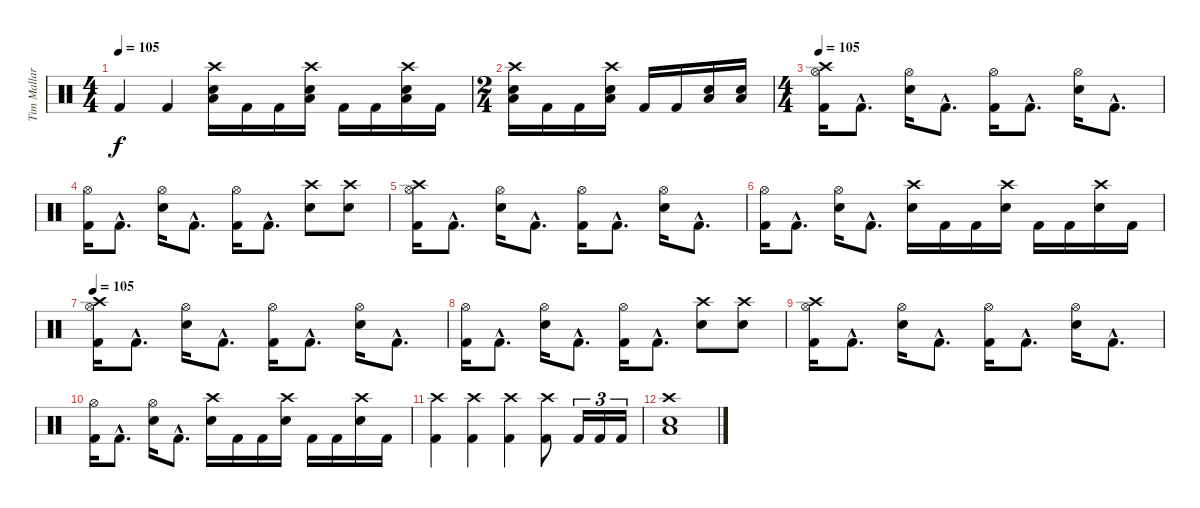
\track ("Tim Mallare" "Tim Mallar") {instrument percussion}
\staff {score}
\articulation defaults
\ts (4 4)
\tempo 105
\clef neutral
\ks c "Kick (hit) 2".4{dy f} "Kick (hit) 2".4
("Crash high (hit)" "Low Floor Tom (hit)" "Electric Snare (hit)").16 "Kick (hit) 2".16 "Kick (hit) 2".16 ("Crash high (hit)" "Low Floor Tom (hit)" "Electric Snare (hit)").16 "Kick (hit) 2".16 "Kick (hit) 2".16 ("Crash high (hit)" "Low Floor Tom (hit)" "Electric Snare (hit)").16 "Kick (hit) 2".16 |
\ts (2 4)
("Crash high (hit)" "Low Floor Tom (hit)" "Electric Snare (hit)").16 "Kick (hit) 2".16 "Kick (hit) 2".16 ("Crash high (hit)" "Low Floor Tom (hit)" "Electric Snare (hit)").16 "Kick (hit) 2".16 "Kick (hit) 2".16 ("Low Floor Tom (hit)" "Electric Snare (hit)").16 ("Low Floor Tom (hit)" "Electric Snare (hit)").16 |
\ts (4 4)
\tempo 105
("Crash high (hit)" "Hi-Hat (open)" "Kick (hit) 2").16 "Kick (hit) 2"{hac}.8{d} ("Hi-Hat (open)" "Electric Snare (hit)").16 "Kick (hit) 2"{hac}.8{d} ("Hi-Hat (open)" "Kick (hit) 2").16 "Kick (hit) 2"{hac}.8{d} ("Hi-Hat (open)" "Electric Snare (hit)").16 "Kick (hit) 2"{hac}.8{d} |
("Hi-Hat (open)" "Kick (hit) 2").16 "Kick (hit) 2"{hac}.8{d} ("Hi-Hat (open)" "Electric Snare (hit)").16 "Kick (hit) 2"{hac}.8{d} ("Hi-Hat (open)" "Kick (hit) 2").16 "Kick (hit) 2"{hac}.8{d} ("Crash high (hit)" "Electric Snare (hit)").8 ("Crash high (hit)" "Electric Snare (hit)").8 |
("Crash high (hit)" "Hi-Hat (open)" "Kick (hit) 2").16 "Kick (hit) 2"{hac}.8{d} ("Hi-Hat (open)" "Electric Snare (hit)").16 "Kick (hit) 2"{hac}.8{d} ("Hi-Hat (open)" "Kick (hit) 2").16 "Kick (hit) 2"{hac}.8{d} ("Hi-Hat (open)" "Electric Snare (hit)").16 "Kick (hit) 2"{hac}.8{d} |
("Hi-Hat (open)" "Kick (hit) 2").16 "Kick (hit) 2"{hac}.8{d} ("Hi-Hat (open)" "Electric Snare (hit)").16 "Kick (hit) 2"{hac}.8{d} ("Crash high (hit)" "Electric Snare (hit)").16 "Kick (hit) 2".16 "Kick (hit) 2".16 ("Crash high (hit)" "Electric Snare (hit)").16 "Kick (hit) 2".16 "Kick (hit) 2".16 ("Crash high (hit)" "Electric Snare (hit)").16 "Kick (hit) 2".16 |
\tempo 105
("Crash high (hit)" "Hi-Hat (open)" "Kick (hit) 2").16 "Kick (hit) 2"{hac}.8{d} ("Hi-Hat (open)" "Electric Snare (hit)").16 "Kick (hit) 2"{hac}.8{d} ("Hi-Hat (open)" "Kick (hit) 2").16 "Kick (hit) 2"{hac}.8{d} ("Hi-Hat (open)" "Electric Snare (hit)").16 "Kick (hit) 2"{hac}.8{d} |
("Hi-Hat (open)" "Kick (hit) 2").16 "Kick (hit) 2"{hac}.8{d} ("Hi-Hat (open)" "Electric Snare (hit)").16 "Kick (hit) 2"{hac}.8{d} ("Hi-Hat (open)" "Kick (hit) 2").16 "Kick (hit) 2"{hac}.8{d} ("Crash high (hit)" "Electric Snare (hit)").8 ("Crash high (hit)" "Electric Snare (hit)").8 |
("Crash high (hit)" "Hi-Hat (open)" "Kick (hit) 2").16 "Kick (hit) 2"{hac}.8{d} ("Hi-Hat (open)" "Electric Snare (hit)").16 "Kick (hit) 2"{hac}.8{d} ("Hi-Hat (open)" "Kick (hit) 2").16 "Kick (hit) 2"{hac}.8{d} ("Hi-Hat (open)" "Electric Snare (hit)").16 "Kick (hit) 2"{hac}.8{d} |
("Hi-Hat (open)" "Kick (hit) 2").16 "Kick (hit) 2"{hac}.8{d} ("Hi-Hat (open)" "Electric Snare (hit)").16 "Kick (hit) 2"{hac}.8{d} ("Crash high (hit)" "Electric Snare (hit)").16 "Kick (hit) 2".16 "Kick (hit) 2".16 ("Crash high (hit)" "Electric Snare (hit)").16 "Kick (hit) 2".16 "Kick (hit) 2".16 ("Crash high (hit)" "Electric Snare (hit)").16 "Kick (hit) 2".16 |
("Crash high (hit)" "Kick (hit) 2").4 ("Crash high (hit)" "Kick (hit) 2").4 ("Crash high (hit)" "Kick (hit) 2").4 ("Crash high (hit)" "Kick (hit) 2").8 "Kick (hit) 2".16{tu (3 2)} "Kick (hit) 2".16{tu (3 2)} "Kick (hit) 2".16{tu (3 2)} |
("Crash high (hit)" "Low Floor Tom (hit)" "Electric Snare (hit)").1
